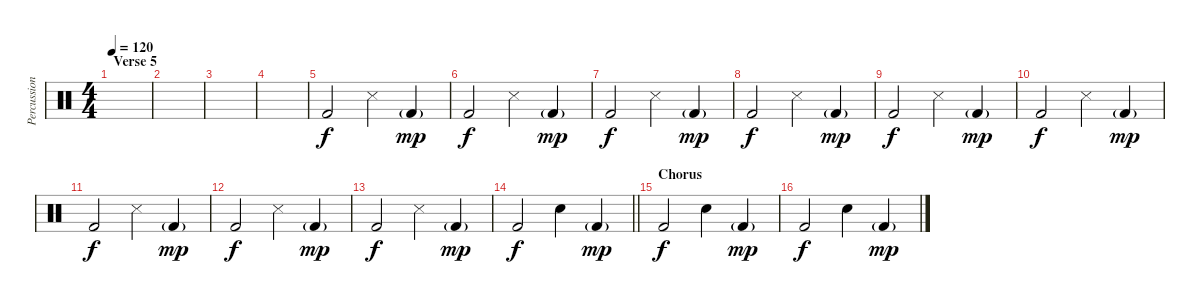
\track ("Percussion" "Percussion") {instrument percussion}
\staff {score}
\articulation defaults
\ts (4 4)
\section ("" "Verse 5")
\tempo 120
\clef neutral
\ks c
|
|
|
|
"Kick (hit) 2".2 "Snare (side stick) 3".4 "Kick (hit) 2"{g}.4{dy mp} |
"Kick (hit) 2".2{dy f} "Snare (side stick) 3".4 "Kick (hit) 2"{g}.4{dy mp} |
"Kick (hit) 2".2{dy f} "Snare (side stick) 3".4 "Kick (hit) 2"{g}.4{dy mp} |
"Kick (hit) 2".2{dy f} "Snare (side stick) 3".4 "Kick (hit) 2"{g}.4{dy mp} |
"Kick (hit) 2".2{dy f} "Snare (side stick) 3".4 "Kick (hit) 2"{g}.4{dy mp} |
"Kick (hit) 2".2{dy f} "Snare (side stick) 3".4 "Kick (hit) 2"{g}.4{dy mp} |
"Kick (hit) 2".2{dy f} "Snare (side stick) 3".4 "Kick (hit) 2"{g}.4{dy mp} |
"Kick (hit) 2".2{dy f} "Snare (side stick) 3".4 "Kick (hit) 2"{g}.4{dy mp} |
"Kick (hit) 2".2{dy f} "Snare (side stick) 3".4 "Kick (hit) 2"{g}.4{dy mp} |
\barLineRight lightlight "Kick (hit) 2".2{dy f} "Snare (hit) 2".4 "Kick (hit) 2"{g}.4{dy mp}
|
\section ("" "Chorus")
"Kick (hit) 2".2{dy f} "Snare (hit) 2".4 "Kick (hit) 2"{g}.4{dy mp} |
"Kick (hit) 2".2{dy f} "Snare (hit) 2".4 "Kick (hit) 2"{g}.4{dy mp}
